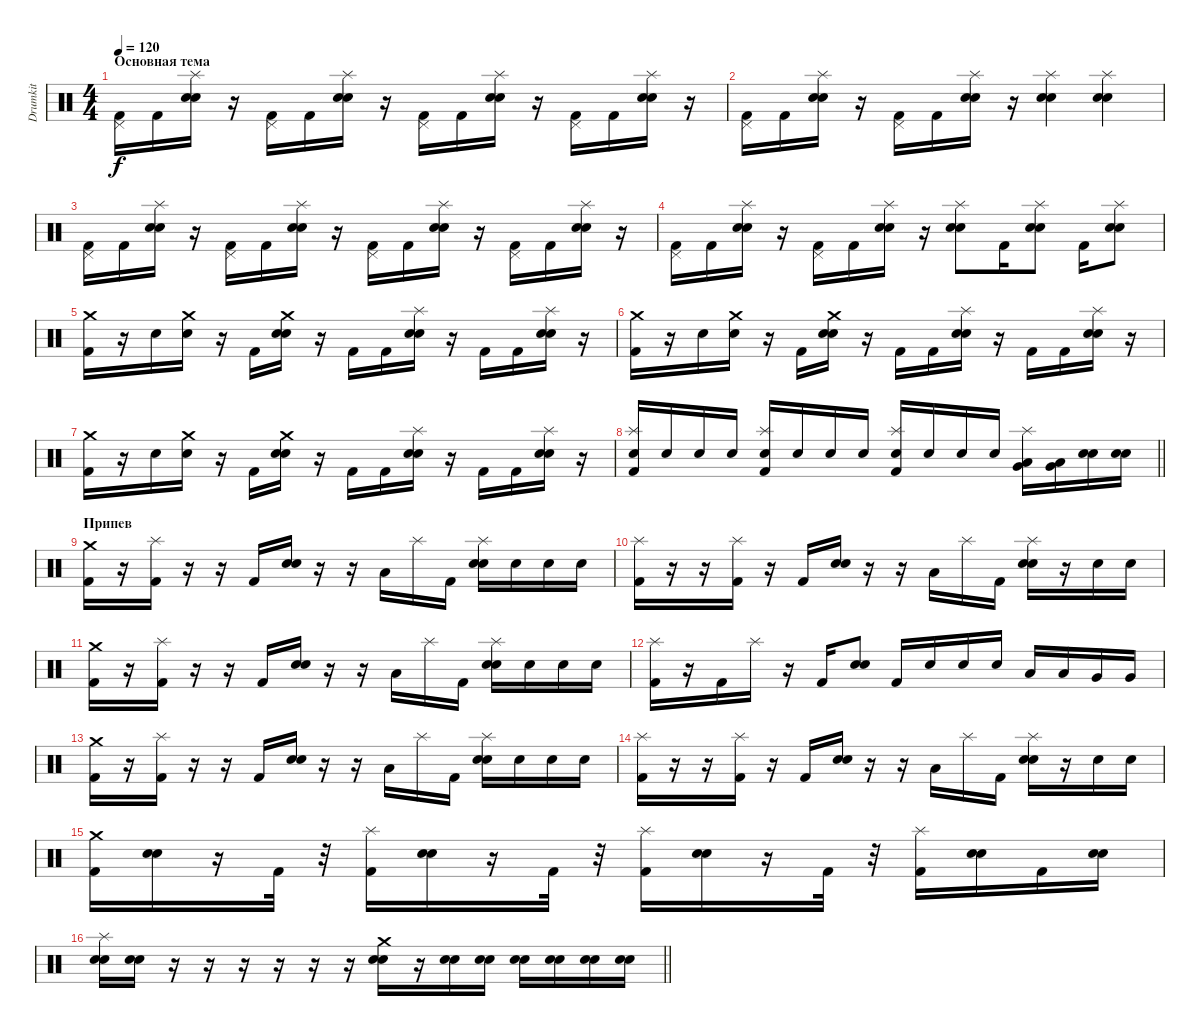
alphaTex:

\track ("Drumkit" "Drumkit") {instrument percussion}
\staff {score}
\articulation defaults
\ts (4 4)
\section ("" "Основная тема")
\tempo 120
\clef neutral
\ks c
("Pedal Hi-Hat (hit)" "Kick (hit) 2").16{dy f} "Kick (hit) 2".16 ("Splash (hit)" "Electric Snare (hit)" "Snare (hit) 2").16 r.16 ("Pedal Hi-Hat (hit)" "Kick (hit) 2").16 "Kick (hit) 2".16 ("Splash (hit)" "Electric Snare (hit)" "Snare (hit) 2").16 r.16 ("Pedal Hi-Hat (hit)" "Kick (hit) 2").16 "Kick (hit) 2".16 ("Splash (hit)" "Electric Snare (hit)" "Snare (hit) 2").16 r.16 ("Pedal Hi-Hat (hit)" "Kick (hit) 2").16 "Kick (hit) 2".16 ("Splash (hit)" "Electric Snare (hit)" "Snare (hit) 2").16 r.16 |
("Pedal Hi-Hat (hit)" "Kick (hit) 2").16 "Kick (hit) 2".16 ("Splash (hit)" "Electric Snare (hit)" "Snare (hit) 2").16 r.16 ("Pedal Hi-Hat (hit)" "Kick (hit) 2").16 "Kick (hit) 2".16 ("Splash (hit)" "Electric Snare (hit)" "Snare (hit) 2").16 r.16 ("Splash (hit)" "Electric Snare (hit)" "Snare (hit) 2").4 ("Splash (hit)" "Electric Snare (hit)" "Snare (hit) 2").4 |
("Pedal Hi-Hat (hit)" "Kick (hit) 2").16 "Kick (hit) 2".16 ("Splash (hit)" "Electric Snare (hit)" "Snare (hit) 2").16 r.16 ("Pedal Hi-Hat (hit)" "Kick (hit) 2").16 "Kick (hit) 2".16 ("Splash (hit)" "Electric Snare (hit)" "Snare (hit) 2").16 r.16 ("Pedal Hi-Hat (hit)" "Kick (hit) 2").16 "Kick (hit) 2".16 ("Splash (hit)" "Electric Snare (hit)" "Snare (hit) 2").16 r.16 ("Pedal Hi-Hat (hit)" "Kick (hit) 2").16 "Kick (hit) 2".16 ("Splash (hit)" "Electric Snare (hit)" "Snare (hit) 2").16 r.16 |
("Pedal Hi-Hat (hit)" "Kick (hit) 2").16 "Kick (hit) 2".16 ("Splash (hit)" "Electric Snare (hit)" "Snare (hit) 2").16 r.16 ("Pedal Hi-Hat (hit)" "Kick (hit) 2").16 "Kick (hit) 2".16 ("Splash (hit)" "Electric Snare (hit)" "Snare (hit) 2").16 r.16 ("Splash (hit)" "Electric Snare (hit)" "Snare (hit) 2").8 "Kick (hit) 2".16 ("Splash (hit)" "Electric Snare (hit)" "Snare (hit) 2").8 "Kick (hit) 2".16 ("Splash (hit)" "Electric Snare (hit)" "Snare (hit) 2").8 |
("Crash medium (hit)" "Kick (hit) 2").16 r.16 "Electric Snare (hit)".16 ("Crash medium (hit)" "Electric Snare (hit)").16 r.16 "Kick (hit) 2".16 ("Crash medium (hit)" "Electric Snare (hit)" "Snare (hit) 2").16 r.16 "Kick (hit) 2".16 "Kick (hit) 2".16 ("Splash (hit)" "Electric Snare (hit)" "Snare (hit) 2").16 r.16 "Kick (hit) 2".16 "Kick (hit) 2".16 ("Splash (hit)" "Electric Snare (hit)" "Snare (hit) 2").16 r.16 |
("Crash medium (hit)" "Kick (hit) 2").16 r.16 "Electric Snare (hit)".16 ("Crash medium (hit)" "Electric Snare (hit)").16 r.16 "Kick (hit) 2".16 ("Crash medium (hit)" "Electric Snare (hit)" "Snare (hit) 2").16 r.16 "Kick (hit) 2".16 "Kick (hit) 2".16 ("Splash (hit)" "Electric Snare (hit)" "Snare (hit) 2").16 r.16 "Kick (hit) 2".16 "Kick (hit) 2".16 ("Splash (hit)" "Electric Snare (hit)" "Snare (hit) 2").16 r.16 |
("Crash medium (hit)" "Kick (hit) 2").16 r.16 "Electric Snare (hit)".16 ("Crash medium (hit)" "Electric Snare (hit)").16 r.16 "Kick (hit) 2".16 ("Crash medium (hit)" "Electric Snare (hit)" "Snare (hit) 2").16 r.16 "Kick (hit) 2".16 "Kick (hit) 2".16 ("Splash (hit)" "Electric Snare (hit)" "Snare (hit) 2").16 r.16 "Kick (hit) 2".16 "Kick (hit) 2".16 ("Splash (hit)" "Electric Snare (hit)" "Snare (hit) 2").16 r.16 |
\barLineRight lightlight
("Splash (hit)" "Electric Snare (hit)" "Kick (hit) 2").16 "Electric Snare (hit)".16 "Electric Snare (hit)".16 "Electric Snare (hit)".16 ("Splash (hit)" "Electric Snare (hit)" "Kick (hit) 2").16 "Electric Snare (hit)".16 "Electric Snare (hit)".16 "Electric Snare (hit)".16 ("Splash (hit)" "Electric Snare (hit)" "Kick (hit) 2").16 "Electric Snare (hit)".16 "Electric Snare (hit)".16 "Electric Snare (hit)".16 ("Splash (hit)" "Low Tom (hit)" "Very Low Tom (hit)").16 ("Low Tom (hit)" "Very Low Tom (hit)").16 ("Electric Snare (hit)" "Snare (hit) 2").16 ("Electric Snare (hit)" "Snare (hit) 2").16 |
\section ("" "Припев")
("Crash medium (hit)" "Kick (hit) 2").16 r.16 ("Splash (hit)" "Kick (hit) 2").16 r.16 r.16 "Kick (hit) 2".16 ("Electric Snare (hit)" "Snare (hit) 2").16 r.16 r.16 "Low Tom (hit)".16 "Splash (hit)".16 "Kick (hit) 2".16 ("Splash (hit)" "Electric Snare (hit)" "Snare (hit) 2").16 "Electric Snare (hit)".16 "Electric Snare (hit)".16 "Electric Snare (hit)".16 |
("Splash (hit)" "Kick (hit) 2").16 r.16 r.16 ("Splash (hit)" "Kick (hit) 2").16 r.16 "Kick (hit) 2".16 ("Electric Snare (hit)" "Snare (hit) 2").16 r.16 r.16 "Low Tom (hit)".16 "Splash (hit)".16 "Kick (hit) 2".16 ("Splash (hit)" "Electric Snare (hit)" "Snare (hit) 2").16 r.16 "Electric Snare (hit)".16 "Electric Snare (hit)".16 |
("Crash medium (hit)" "Kick (hit) 2").16 r.16 ("Splash (hit)" "Kick (hit) 2").16 r.16 r.16 "Kick (hit) 2".16 ("Electric Snare (hit)" "Snare (hit) 2").16 r.16 r.16 "Low Tom (hit)".16 "Splash (hit)".16 "Kick (hit) 2".16 ("Splash (hit)" "Electric Snare (hit)" "Snare (hit) 2").16 "Electric Snare (hit)".16 "Electric Snare (hit)".16 "Electric Snare (hit)".16 |
("Splash (hit)" "Kick (hit) 2").16 r.16 "Kick (hit) 2".16 "Splash (hit)".16 r.16 "Kick (hit) 2".16 ("Electric Snare (hit)" "Snare (hit) 2").8 "Kick (hit) 2".16 "Electric Snare (hit)".16 "Electric Snare (hit)".16 "Electric Snare (hit)".16 "Low Tom (hit)".16 "Low Tom (hit)".16 "Very Low Tom (hit)".16 "Very Low Tom (hit)".16 |
("Crash medium (hit)" "Kick (hit) 2").16 r.16 ("Splash (hit)" "Kick (hit) 2").16 r.16 r.16 "Kick (hit) 2".16 ("Electric Snare (hit)" "Snare (hit) 2").16 r.16 r.16 "Low Tom (hit)".16 "Splash (hit)".16 "Kick (hit) 2".16 ("Splash (hit)" "Electric Snare (hit)" "Snare (hit) 2").16 "Electric Snare (hit)".16 "Electric Snare (hit)".16 "Electric Snare (hit)".16 |
("Splash (hit)" "Kick (hit) 2").16 r.16 r.16 ("Splash (hit)" "Kick (hit) 2").16 r.16 "Kick (hit) 2".16 ("Electric Snare (hit)" "Snare (hit) 2").16 r.16 r.16 "Low Tom (hit)".16 "Splash (hit)".16 "Kick (hit) 2".16 ("Splash (hit)" "Electric Snare (hit)" "Snare (hit) 2").16 r.16 "Electric Snare (hit)".16 "Electric Snare (hit)".16 |
("Crash medium (hit)" "Kick (hit) 2").16 ("Electric Snare (hit)" "Snare (hit) 2").16 r.16 "Kick (hit) 2".32 r.32 ("Splash (hit)" "Kick (hit) 2").16 ("Electric Snare (hit)" "Snare (hit) 2").16 r.16 "Kick (hit) 2".32 r.32 ("Splash (hit)" "Kick (hit) 2").16 ("Electric Snare (hit)" "Snare (hit) 2").16 r.16 "Kick (hit) 2".32 r.32 ("Splash (hit)" "Kick (hit) 2").16 ("Electric Snare (hit)" "Snare (hit) 2").16 "Kick (hit) 2".16 ("Electric Snare (hit)" "Snare (hit) 2").16 |
\barLineRight lightlight
("Splash (hit)" "Electric Snare (hit)" "Snare (hit) 2").16 ("Electric Snare (hit)" "Snare (hit) 2").16 r.16 r.16 r.16 r.16 r.16 r.16 ("Crash medium (hit)" "Electric Snare (hit)" "Snare (hit) 2").16 r.16 ("Electric Snare (hit)" "Snare (hit) 2").16 ("Electric Snare (hit)" "Snare (hit) 2").16 ("Electric Snare (hit)" "Snare (hit) 2").16 ("Electric Snare (hit)" "Snare (hit) 2").16 ("Electric Snare (hit)" "Snare (hit) 2").16 ("Electric Snare (hit)" "Snare (hit) 2").16
